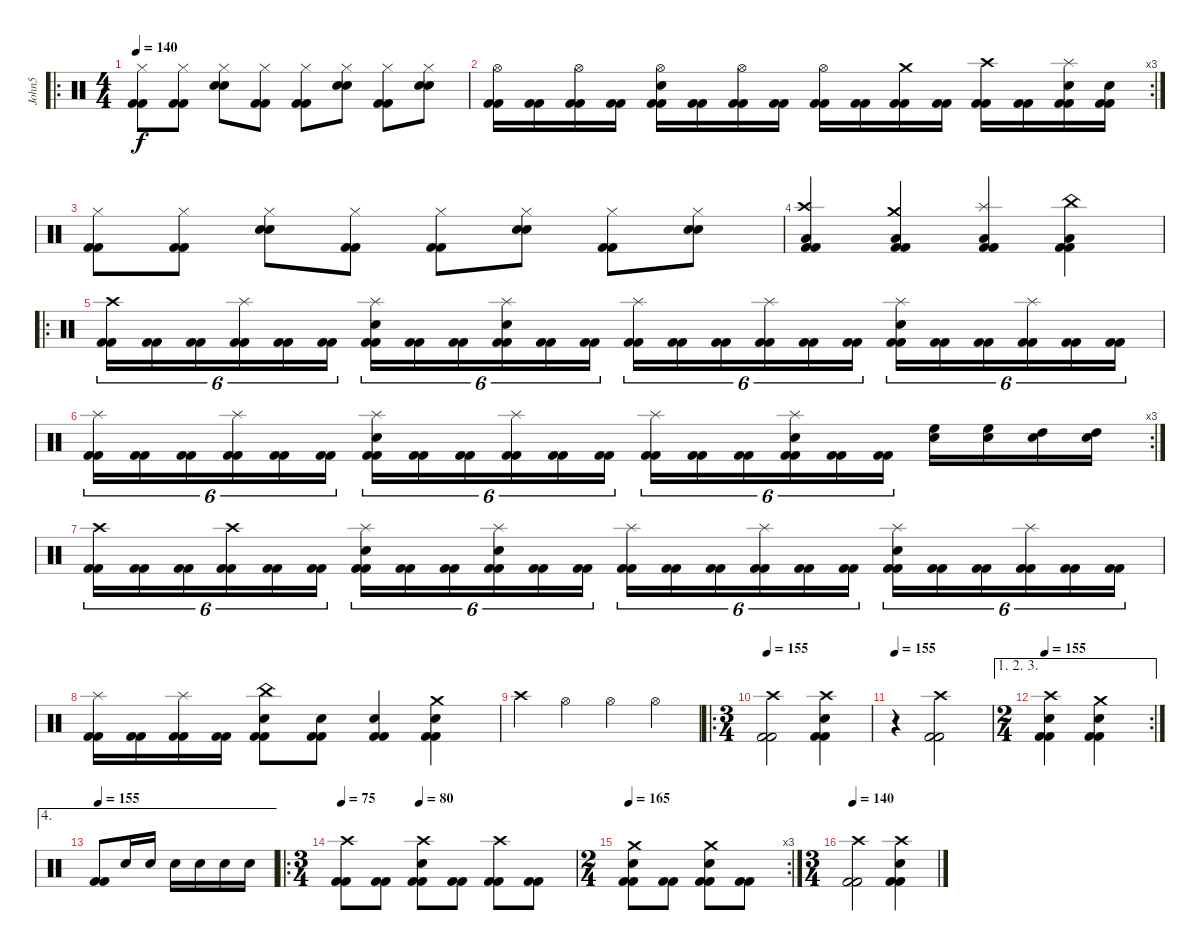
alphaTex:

\track ("John5" "John5") {instrument percussion}
\staff {score}
\articulation defaults
\ro
\ts (4 4)
\tempo 140
\clef neutral
\ks c
("Hi-Hat (closed)" "Kick (hit) 2" "Kick (hit) 2").8{dy f} ("Hi-Hat (closed)" "Kick (hit) 2" "Kick (hit) 2").8 ("Hi-Hat (closed)" "Electric Snare (hit)" "Snare (hit)").8 ("Hi-Hat (closed)" "Kick (hit) 2" "Kick (hit) 2").8 ("Hi-Hat (closed)" "Kick (hit) 2" "Kick (hit) 2").8 ("Hi-Hat (closed)" "Electric Snare (hit)" "Snare (hit)").8 ("Hi-Hat (closed)" "Kick (hit) 2" "Kick (hit) 2").8 ("Hi-Hat (closed)" "Electric Snare (hit)" "Snare (hit)").8 |
\rc 3
("Hi-Hat (open)" "Kick (hit) 2" "Kick (hit) 2").16 ("Kick (hit) 2" "Kick (hit) 2").16 ("Hi-Hat (open)" "Kick (hit) 2" "Kick (hit) 2").16 ("Kick (hit) 2" "Kick (hit) 2").16 ("Hi-Hat (open)" "Electric Snare (hit)" "Kick (hit) 2" "Kick (hit) 2").16 ("Kick (hit) 2" "Kick (hit) 2").16 ("Hi-Hat (open)" "Kick (hit) 2" "Kick (hit) 2").16 ("Kick (hit) 2" "Kick (hit) 2").16 ("Hi-Hat (open)" "Kick (hit) 2" "Kick (hit) 2").16 ("Kick (hit) 2" "Kick (hit) 2").16 ("Crash medium (hit)" "Kick (hit) 2" "Kick (hit) 2").16 ("Kick (hit) 2" "Kick (hit) 2").16 ("Crash high (hit)" "Kick (hit) 2" "Kick (hit) 2").16 ("Kick (hit) 2" "Kick (hit) 2").16 ("Splash (hit)" "Electric Snare (hit)" "Kick (hit) 2" "Kick (hit) 2").16 ("Electric Snare (hit)" "Kick (hit) 2" "Kick (hit) 2").16 |
("Hi-Hat (closed)" "Kick (hit) 2" "Kick (hit) 2").8 ("Hi-Hat (closed)" "Kick (hit) 2" "Kick (hit) 2").8 ("Hi-Hat (closed)" "Electric Snare (hit)" "Snare (hit)").8 ("Hi-Hat (closed)" "Kick (hit) 2" "Kick (hit) 2").8 ("Hi-Hat (closed)" "Kick (hit) 2" "Kick (hit) 2").8 ("Hi-Hat (closed)" "Electric Snare (hit)" "Snare (hit)").8 ("Hi-Hat (closed)" "Kick (hit) 2" "Kick (hit) 2").8 ("Hi-Hat (closed)" "Electric Snare (hit)" "Snare (hit)").8 |
("Crash high (hit)" "Low Floor Tom (hit)" "Kick (hit) 2" "Kick (hit) 2").4 ("Crash medium (hit)" "Low Floor Tom (hit)" "Kick (hit) 2" "Kick (hit) 2").4 ("Splash (hit)" "Low Floor Tom (hit)" "Kick (hit) 2" "Kick (hit) 2").4 ("China (hit)" "Low Floor Tom (hit)" "Kick (hit) 2" "Kick (hit) 2").4 |
\ro
("Crash high (hit)" "Kick (hit) 2" "Kick (hit) 2").16{tu (6 4)} ("Kick (hit) 2" "Kick (hit) 2").16{tu (6 4)} ("Kick (hit) 2" "Kick (hit) 2").16{tu (6 4)} ("Splash (hit)" "Kick (hit) 2" "Kick (hit) 2").16{tu (6 4)} ("Kick (hit) 2" "Kick (hit) 2").16{tu (6 4)} ("Kick (hit) 2" "Kick (hit) 2").16{tu (6 4)} ("Splash (hit)" "Electric Snare (hit)" "Kick (hit) 2" "Kick (hit) 2").16{tu (6 4)} ("Kick (hit) 2" "Kick (hit) 2").16{tu (6 4)} ("Kick (hit) 2" "Kick (hit) 2").16{tu (6 4)} ("Splash (hit)" "Electric Snare (hit)" "Kick (hit) 2" "Kick (hit) 2").16{tu (6 4)} ("Kick (hit) 2" "Kick (hit) 2").16{tu (6 4)} ("Kick (hit) 2" "Kick (hit) 2").16{tu (6 4)} ("Splash (hit)" "Kick (hit) 2" "Kick (hit) 2").16{tu (6 4)} ("Kick (hit) 2" "Kick (hit) 2").16{tu (6 4)} ("Kick (hit) 2" "Kick (hit) 2").16{tu (6 4)} ("Splash (hit)" "Kick (hit) 2" "Kick (hit) 2").16{tu (6 4)} ("Kick (hit) 2" "Kick (hit) 2").16{tu (6 4)} ("Kick (hit) 2" "Kick (hit) 2").16{tu (6 4)} ("Splash (hit)" "Electric Snare (hit)" "Kick (hit) 2" "Kick (hit) 2").16{tu (6 4)} ("Kick (hit) 2" "Kick (hit) 2").16{tu (6 4)} ("Kick (hit) 2" "Kick (hit) 2").16{tu (6 4)} ("Splash (hit)" "Kick (hit) 2" "Kick (hit) 2").16{tu (6 4)} ("Kick (hit) 2" "Kick (hit) 2").16{tu (6 4)} ("Kick (hit) 2" "Kick (hit) 2").16{tu (6 4)} |
\rc 3
("Splash (hit)" "Kick (hit) 2" "Kick (hit) 2").16{tu (6 4)} ("Kick (hit) 2" "Kick (hit) 2").16{tu (6 4)} ("Kick (hit) 2" "Kick (hit) 2").16{tu (6 4)} ("Splash (hit)" "Kick (hit) 2" "Kick (hit) 2").16{tu (6 4)} ("Kick (hit) 2" "Kick (hit) 2").16{tu (6 4)} ("Kick (hit) 2" "Kick (hit) 2").16{tu (6 4)} ("Splash (hit)" "Electric Snare (hit)" "Kick (hit) 2" "Kick (hit) 2").16{tu (6 4)} ("Kick (hit) 2" "Kick (hit) 2").16{tu (6 4)} ("Kick (hit) 2" "Kick (hit) 2").16{tu (6 4)} ("Splash (hit)" "Kick (hit) 2" "Kick (hit) 2").16{tu (6 4)} ("Kick (hit) 2" "Kick (hit) 2").16{tu (6 4)} ("Kick (hit) 2" "Kick (hit) 2").16{tu (6 4)} ("Splash (hit)" "Kick (hit) 2" "Kick (hit) 2").16{tu (6 4)} ("Kick (hit) 2" "Kick (hit) 2").16{tu (6 4)} ("Kick (hit) 2" "Kick (hit) 2").16{tu (6 4)} ("Splash (hit)" "Electric Snare (hit)" "Kick (hit) 2" "Kick (hit) 2").16{tu (6 4)} ("Kick (hit) 2" "Kick (hit) 2").16{tu (6 4)} ("Kick (hit) 2" "Kick (hit) 2").16{tu (6 4)} ("High Floor Tom (hit)" "Snare (hit)").16 ("High Floor Tom (hit)" "Snare (hit)").16 ("High Tom (hit)" "Snare (hit)").16 ("High Tom (hit)" "Snare (hit)").16 |
("Crash high (hit)" "Kick (hit) 2" "Kick (hit) 2").16{tu (6 4)} ("Kick (hit) 2" "Kick (hit) 2").16{tu (6 4)} ("Kick (hit) 2" "Kick (hit) 2").16{tu (6 4)} ("Crash high (hit)" "Kick (hit) 2" "Kick (hit) 2").16{tu (6 4)} ("Kick (hit) 2" "Kick (hit) 2").16{tu (6 4)} ("Kick (hit) 2" "Kick (hit) 2").16{tu (6 4)} ("Splash (hit)" "Electric Snare (hit)" "Kick (hit) 2" "Kick (hit) 2").16{tu (6 4)} ("Kick (hit) 2" "Kick (hit) 2").16{tu (6 4)} ("Kick (hit) 2" "Kick (hit) 2").16{tu (6 4)} ("Splash (hit)" "Electric Snare (hit)" "Kick (hit) 2" "Kick (hit) 2").16{tu (6 4)} ("Kick (hit) 2" "Kick (hit) 2").16{tu (6 4)} ("Kick (hit) 2" "Kick (hit) 2").16{tu (6 4)} ("Splash (hit)" "Kick (hit) 2" "Kick (hit) 2").16{tu (6 4)} ("Kick (hit) 2" "Kick (hit) 2").16{tu (6 4)} ("Kick (hit) 2" "Kick (hit) 2").16{tu (6 4)} ("Splash (hit)" "Kick (hit) 2" "Kick (hit) 2").16{tu (6 4)} ("Kick (hit) 2" "Kick (hit) 2").16{tu (6 4)} ("Kick (hit) 2" "Kick (hit) 2").16{tu (6 4)} ("Splash (hit)" "Electric Snare (hit)" "Kick (hit) 2" "Kick (hit) 2").16{tu (6 4)} ("Kick (hit) 2" "Kick (hit) 2").16{tu (6 4)} ("Kick (hit) 2" "Kick (hit) 2").16{tu (6 4)} ("Splash (hit)" "Kick (hit) 2" "Kick (hit) 2").16{tu (6 4)} ("Kick (hit) 2" "Kick (hit) 2").16{tu (6 4)} ("Kick (hit) 2" "Kick (hit) 2").16{tu (6 4)} |
("Splash (hit)" "Kick (hit) 2" "Kick (hit) 2").16 ("Kick (hit) 2" "Kick (hit) 2").16 ("Splash (hit)" "Kick (hit) 2" "Kick (hit) 2").16 ("Kick (hit) 2" "Kick (hit) 2").16 ("China (hit)" "Electric Snare (hit)" "Kick (hit) 2" "Kick (hit) 2").8 ("Electric Snare (hit)" "Kick (hit) 2" "Kick (hit) 2").8 ("Electric Snare (hit)" "Kick (hit) 2" "Kick (hit) 2").4 ("Crash medium (hit)" "Electric Snare (hit)" "Kick (hit) 2" "Kick (hit) 2").4 |
"Crash high (hit)".4 "Hi-Hat (open)".4 "Hi-Hat (open)".4 "Hi-Hat (open)".4 |
\ro
\ts (3 4)
\tempo 155
("Crash high (hit)" "Kick (hit) 2" "Kick (hit) 2").2 ("Crash high (hit)" "Electric Snare (hit)" "Kick (hit) 2" "Kick (hit) 2").4 |
\tempo 155
r.4 ("Crash high (hit)" "Kick (hit) 2" "Kick (hit) 2").2 |
\ae (1 2 3)
\rc 2
\ts (2 4)
\tempo 155
("Crash high (hit)" "Electric Snare (hit)" "Kick (hit) 2" "Kick (hit) 2").4 ("Crash medium (hit)" "Electric Snare (hit)" "Kick (hit) 2" "Kick (hit) 2").4 |
\ae 4
\tempo 155
("Kick (hit) 2" "Kick (hit) 2").8 "Electric Snare (hit)".16 "Electric Snare (hit)".16 "Snare (hit)".16 "Electric Snare (hit)".16 "Electric Snare (hit)".16 "Electric Snare (hit)".16 |
\ro
\ts (3 4)
\tempo 75
\tempo (80 0.3333333333333333)
("Crash high (hit)" "Kick (hit) 2" "Kick (hit) 2").8 ("Kick (hit) 2" "Kick (hit) 2").8 ("Crash high (hit)" "Electric Snare (hit)" "Kick (hit) 2" "Kick (hit) 2").8 ("Kick (hit) 2" "Kick (hit) 2").8 ("Crash high (hit)" "Kick (hit) 2" "Kick (hit) 2").8 ("Kick (hit) 2" "Kick (hit) 2").8 |
\rc 3
\ts (2 4)
\tempo 165
("Crash medium (hit)" "Electric Snare (hit)" "Kick (hit) 2" "Kick (hit) 2").8 ("Kick (hit) 2" "Kick (hit) 2").8 ("Crash medium (hit)" "Electric Snare (hit)" "Kick (hit) 2" "Kick (hit) 2").8 ("Kick (hit) 2" "Kick (hit) 2").8 |
\ts (3 4)
\tempo 140
("Crash high (hit)" "Kick (hit) 2" "Kick (hit) 2").2 ("Crash high (hit)" "Electric Snare (hit)" "Kick (hit) 2" "Kick (hit) 2").4
